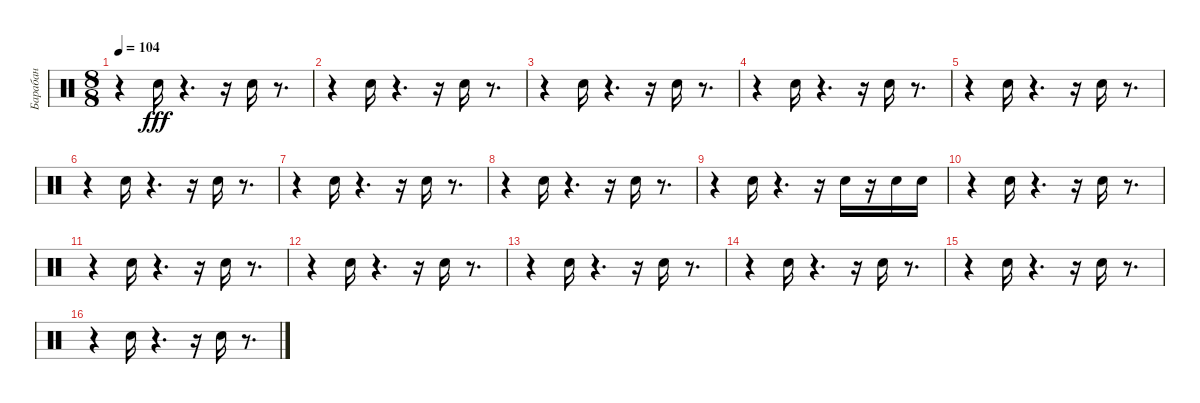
\track ("Барабан" "Барабан") {instrument percussion}
\staff {score}
\articulation defaults
\ts (8 8)
\tempo 104
\clef neutral
\ks c
r.4{dy fff} "Snare (hit) 2".16 r.4{d} r.16 "Snare (hit) 2".16 r.8{d} |
r.4 "Snare (hit) 2".16 r.4{d} r.16 "Snare (hit) 2".16 r.8{d} |
r.4 "Snare (hit) 2".16 r.4{d} r.16 "Snare (hit) 2".16 r.8{d} |
r.4 "Snare (hit) 2".16 r.4{d} r.16 "Snare (hit) 2".16 r.8{d} |
r.4 "Snare (hit) 2".16 r.4{d} r.16 "Snare (hit) 2".16 r.8{d} |
r.4 "Snare (hit) 2".16 r.4{d} r.16 "Snare (hit) 2".16 r.8{d} |
r.4 "Snare (hit) 2".16 r.4{d} r.16 "Snare (hit) 2".16 r.8{d} |
r.4 "Snare (hit) 2".16 r.4{d} r.16 "Snare (hit) 2".16 r.8{d} |
r.4 "Snare (hit) 2".16 r.4{d} r.16 "Snare (hit) 2".16 r.16 "Snare (hit) 2".16 "Snare (hit) 2".16 |
r.4 "Snare (hit) 2".16 r.4{d} r.16 "Snare (hit) 2".16 r.8{d} |
r.4 "Snare (hit) 2".16 r.4{d} r.16 "Snare (hit) 2".16 r.8{d} |
r.4 "Snare (hit) 2".16 r.4{d} r.16 "Snare (hit) 2".16 r.8{d} |
r.4 "Snare (hit) 2".16 r.4{d} r.16 "Snare (hit) 2".16 r.8{d} |
r.4 "Snare (hit) 2".16 r.4{d} r.16 "Snare (hit) 2".16 r.8{d} |
r.4 "Snare (hit) 2".16 r.4{d} r.16 "Snare (hit) 2".16 r.8{d} |
r.4 "Snare (hit) 2".16 r.4{d} r.16 "Snare (hit) 2".16 r.8{d}
